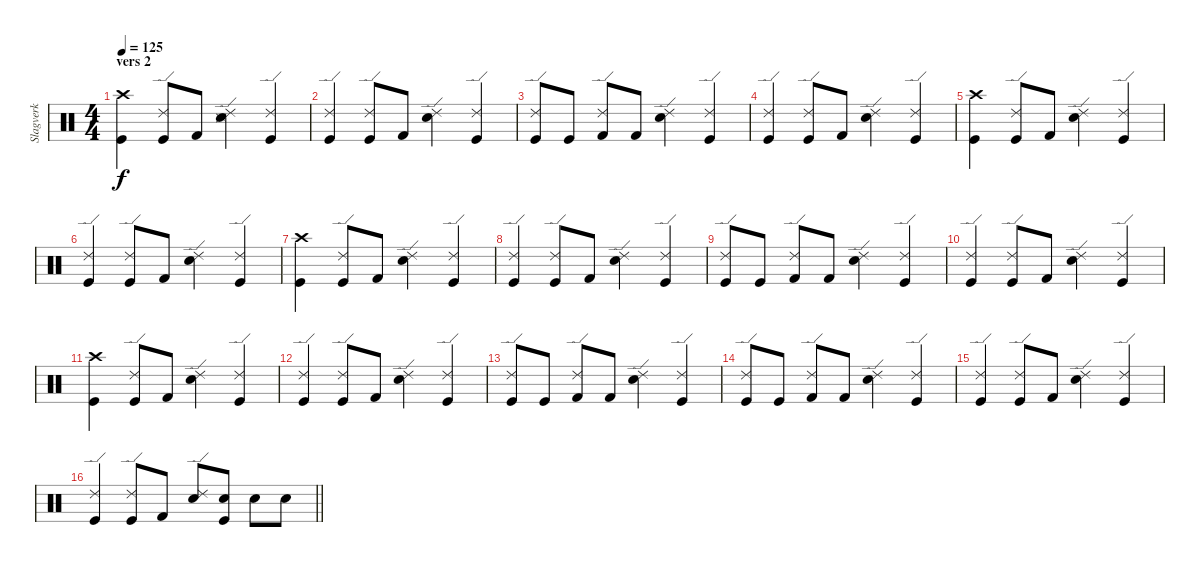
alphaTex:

\track ("Slagverk" "Slagverk") {instrument percussion}
\staff {score}
\articulation defaults
\ts (4 4)
\section ("" "vers 2")
\tempo 125
\clef neutral
\ks c
("Crash high (hit)" "Kick (hit)").4{dy f} ("Ride (edge) 2" "Kick (hit)").8 "Kick (hit) 2".8 ("Ride (edge) 2" "Snare (side stick) 3" "Snare (hit) 2").4 ("Ride (edge) 2" "Kick (hit)").4 |
("Ride (edge) 2" "Kick (hit)").4 ("Ride (edge) 2" "Kick (hit)").8 "Kick (hit) 2".8 ("Ride (edge) 2" "Snare (hit) 2").4 ("Ride (edge) 2" "Kick (hit)").4 |
("Ride (edge) 2" "Kick (hit)").8 "Kick (hit)".8 ("Ride (edge) 2" "Kick (hit) 2").8 "Kick (hit) 2".8 ("Ride (edge) 2" "Snare (hit) 2").4 ("Ride (edge) 2" "Kick (hit)").4 |
("Ride (edge) 2" "Kick (hit)").4 ("Ride (edge) 2" "Kick (hit)").8 "Kick (hit) 2".8 ("Ride (edge) 2" "Snare (hit) 2").4 ("Ride (edge) 2" "Kick (hit)").4 |
("Crash high (hit)" "Kick (hit)").4 ("Ride (edge) 2" "Kick (hit)").8 "Kick (hit) 2".8 ("Ride (edge) 2" "Snare (hit) 2").4 ("Ride (edge) 2" "Kick (hit)").4 |
("Ride (edge) 2" "Kick (hit)").4 ("Ride (edge) 2" "Kick (hit)").8 "Kick (hit) 2".8 ("Ride (edge) 2" "Snare (hit) 2").4 ("Ride (edge) 2" "Kick (hit)").4 |
("Crash high (hit)" "Kick (hit)").4 ("Ride (edge) 2" "Kick (hit)").8 "Kick (hit) 2".8 ("Ride (edge) 2" "Snare (hit) 2").4 ("Ride (edge) 2" "Kick (hit)").4 |
("Ride (edge) 2" "Kick (hit)").4 ("Ride (edge) 2" "Kick (hit)").8 "Kick (hit) 2".8 ("Ride (edge) 2" "Snare (hit) 2").4 ("Ride (edge) 2" "Kick (hit)").4 |
("Ride (edge) 2" "Kick (hit)").8 "Kick (hit)".8 ("Ride (edge) 2" "Kick (hit) 2").8 "Kick (hit) 2".8 ("Ride (edge) 2" "Snare (hit) 2").4 ("Ride (edge) 2" "Kick (hit)").4 |
("Ride (edge) 2" "Kick (hit)").4 ("Ride (edge) 2" "Kick (hit)").8 "Kick (hit) 2".8 ("Ride (edge) 2" "Snare (hit) 2").4 ("Ride (edge) 2" "Kick (hit)").4 |
("Crash high (hit)" "Kick (hit)").4 ("Ride (edge) 2" "Kick (hit)").8 "Kick (hit) 2".8 ("Ride (edge) 2" "Snare (hit) 2").4 ("Ride (edge) 2" "Kick (hit)").4 |
("Ride (edge) 2" "Kick (hit)").4 ("Ride (edge) 2" "Kick (hit)").8 "Kick (hit) 2".8 ("Ride (edge) 2" "Snare (hit) 2").4 ("Ride (edge) 2" "Kick (hit)").4 |
("Ride (edge) 2" "Kick (hit)").8 "Kick (hit)".8 ("Ride (edge) 2" "Kick (hit) 2").8 "Kick (hit) 2".8 ("Ride (edge) 2" "Snare (hit) 2").4 ("Ride (edge) 2" "Kick (hit)").4 |
("Ride (edge) 2" "Kick (hit)").8 "Kick (hit)".8 ("Ride (edge) 2" "Kick (hit) 2").8 "Kick (hit) 2".8 ("Ride (edge) 2" "Snare (hit) 2").4 ("Ride (edge) 2" "Kick (hit)").4 |
("Ride (edge) 2" "Kick (hit)").4 ("Ride (edge) 2" "Kick (hit)").8 "Kick (hit) 2".8 ("Ride (edge) 2" "Snare (hit) 2").4 ("Ride (edge) 2" "Kick (hit)").4 |
\barLineRight lightlight
("Ride (edge) 2" "Kick (hit)").4 ("Ride (edge) 2" "Kick (hit)").8 "Kick (hit) 2".8 ("Ride (edge) 2" "Snare (hit) 2").8 ("Snare (hit) 2" "Kick (hit)").8 "Snare (hit) 2".8 "Snare (hit) 2".8
